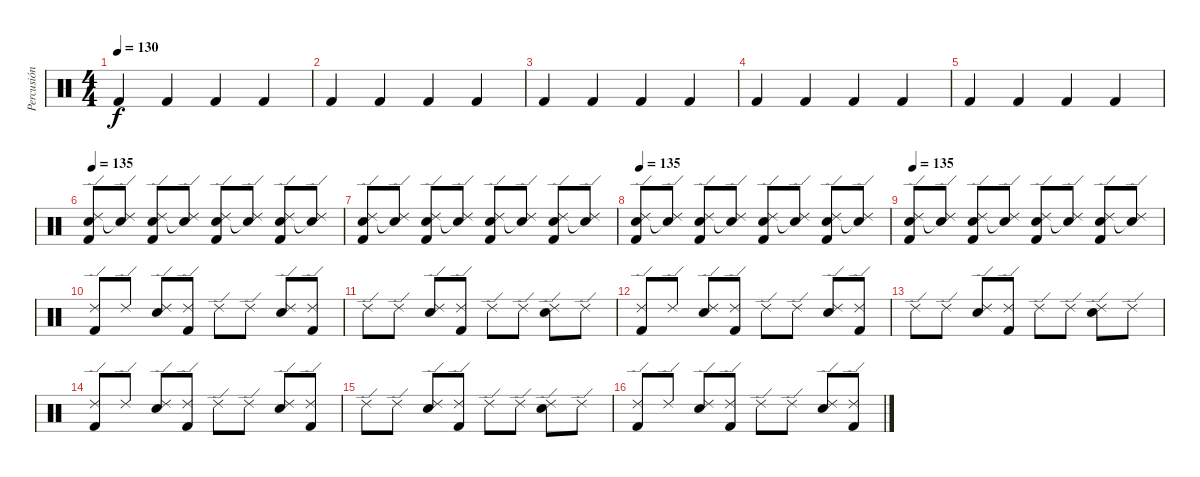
\track ("Percusión" "Percusión") {instrument percussion}
\staff {score}
\articulation defaults
\ts (4 4)
\tempo 130
\clef neutral
\ks c "Kick (hit) 2".4{dy f} "Kick (hit) 2".4 "Kick (hit) 2".4 "Kick (hit) 2".4
|
"Kick (hit) 2".4 "Kick (hit) 2".4 "Kick (hit) 2".4 "Kick (hit) 2".4 |
"Kick (hit) 2".4 "Kick (hit) 2".4 "Kick (hit) 2".4 "Kick (hit) 2".4 |
"Kick (hit) 2".4 "Kick (hit) 2".4 "Kick (hit) 2".4 "Kick (hit) 2".4 |
"Kick (hit) 2".4 "Kick (hit) 2".4 "Kick (hit) 2".4 "Kick (hit) 2".4 |
\tempo 135
("Kick (hit) 2" "Ride (edge) 2" "Electric Snare (hit)").8 ("Ride (edge) 2" "Snare (hit)"{t}).8 ("Kick (hit) 2" "Ride (edge) 2" "Electric Snare (hit)").8 ("Ride (edge) 2" "Snare (hit)"{t}).8 ("Kick (hit) 2" "Ride (edge) 2" "Electric Snare (hit)").8 ("Ride (edge) 2" "Snare (hit)"{t}).8 ("Kick (hit) 2" "Ride (edge) 2" "Electric Snare (hit)").8 ("Ride (edge) 2" "Snare (hit)"{t}).8 |
("Kick (hit) 2" "Ride (edge) 2" "Electric Snare (hit)").8 ("Ride (edge) 2" "Snare (hit)"{t}).8 ("Kick (hit) 2" "Ride (edge) 2" "Electric Snare (hit)").8 ("Ride (edge) 2" "Snare (hit)"{t}).8 ("Kick (hit) 2" "Ride (edge) 2" "Electric Snare (hit)").8 ("Ride (edge) 2" "Snare (hit)"{t}).8 ("Kick (hit) 2" "Ride (edge) 2" "Electric Snare (hit)").8 ("Ride (edge) 2" "Snare (hit)"{t}).8 |
\tempo 135
("Kick (hit) 2" "Ride (edge) 2" "Electric Snare (hit)").8 ("Ride (edge) 2" "Snare (hit)"{t}).8 ("Kick (hit) 2" "Ride (edge) 2" "Electric Snare (hit)").8 ("Ride (edge) 2" "Snare (hit)"{t}).8 ("Kick (hit) 2" "Ride (edge) 2" "Electric Snare (hit)").8 ("Ride (edge) 2" "Snare (hit)"{t}).8 ("Kick (hit) 2" "Ride (edge) 2" "Electric Snare (hit)").8 ("Ride (edge) 2" "Snare (hit)"{t}).8 |
\tempo 135
("Kick (hit) 2" "Ride (edge) 2" "Electric Snare (hit)").8 ("Ride (edge) 2" "Snare (hit)"{t}).8 ("Kick (hit) 2" "Ride (edge) 2" "Electric Snare (hit)").8 ("Ride (edge) 2" "Snare (hit)"{t}).8 ("Kick (hit) 2" "Ride (edge) 2" "Electric Snare (hit)").8 ("Ride (edge) 2" "Snare (hit)"{t}).8 ("Kick (hit) 2" "Ride (edge) 2" "Electric Snare (hit)").8 ("Ride (edge) 2" "Snare (hit)"{t}).8 |
("Kick (hit) 2" "Ride (edge) 2").8 "Ride (edge) 2".8 ("Ride (edge) 2" "Electric Snare (hit)").8 ("Kick (hit) 2" "Ride (edge) 2").8 "Ride (edge) 2".8 "Ride (edge) 2".8 ("Ride (edge) 2" "Electric Snare (hit)").8 ("Kick (hit) 2" "Ride (edge) 2").8 |
"Ride (edge) 2".8 "Ride (edge) 2".8 ("Ride (edge) 2" "Electric Snare (hit)").8 ("Kick (hit) 2" "Ride (edge) 2").8 "Ride (edge) 2".8 "Ride (edge) 2".8 ("Ride (edge) 2" "Electric Snare (hit)").8 "Ride (edge) 2".8 |
("Kick (hit) 2" "Ride (edge) 2").8 "Ride (edge) 2".8 ("Ride (edge) 2" "Electric Snare (hit)").8 ("Kick (hit) 2" "Ride (edge) 2").8 "Ride (edge) 2".8 "Ride (edge) 2".8 ("Ride (edge) 2" "Electric Snare (hit)").8 ("Kick (hit) 2" "Ride (edge) 2").8 |
"Ride (edge) 2".8 "Ride (edge) 2".8 ("Ride (edge) 2" "Electric Snare (hit)").8 ("Kick (hit) 2" "Ride (edge) 2").8 "Ride (edge) 2".8 "Ride (edge) 2".8 ("Ride (edge) 2" "Electric Snare (hit)").8 "Ride (edge) 2".8 |
("Kick (hit) 2" "Ride (edge) 2").8 "Ride (edge) 2".8 ("Ride (edge) 2" "Electric Snare (hit)").8 ("Kick (hit) 2" "Ride (edge) 2").8 "Ride (edge) 2".8 "Ride (edge) 2".8 ("Ride (edge) 2" "Electric Snare (hit)").8 ("Kick (hit) 2" "Ride (edge) 2").8 |
"Ride (edge) 2".8 "Ride (edge) 2".8 ("Ride (edge) 2" "Electric Snare (hit)").8 ("Kick (hit) 2" "Ride (edge) 2").8 "Ride (edge) 2".8 "Ride (edge) 2".8 ("Ride (edge) 2" "Electric Snare (hit)").8 "Ride (edge) 2".8 |
("Kick (hit) 2" "Ride (edge) 2").8 "Ride (edge) 2".8 ("Ride (edge) 2" "Electric Snare (hit)").8 ("Kick (hit) 2" "Ride (edge) 2").8 "Ride (edge) 2".8 "Ride (edge) 2".8 ("Ride (edge) 2" "Electric Snare (hit)").8 ("Kick (hit) 2" "Ride (edge) 2").8
